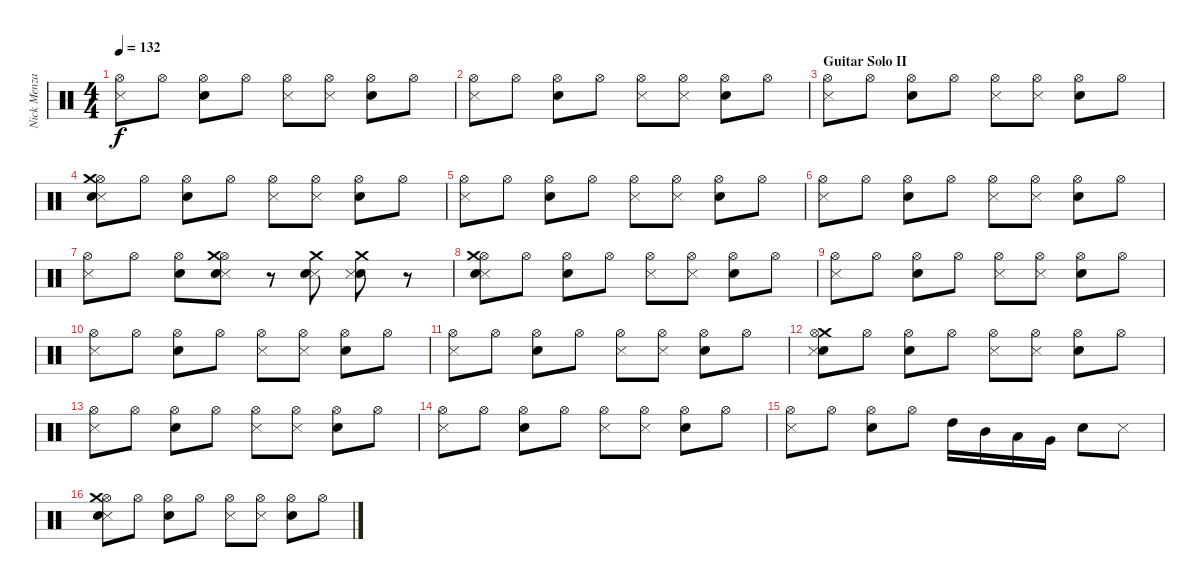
\track ("Nick Menza (Drums)" "Nick Menza") {instrument percussion}
\staff {score}
\articulation defaults
\ts (4 4)
\tempo 132
\clef neutral
\ks c
("Hi-Hat (open)" "Metronome (hit)").8{dy f} "Hi-Hat (open)".8 ("Hi-Hat (open)" "Electric Snare (hit)").8 "Hi-Hat (open)".8 ("Metronome (hit)" "Hi-Hat (open)").8 ("Metronome (hit)" "Hi-Hat (open)").8 ("Electric Snare (hit)" "Hi-Hat (open)").8 "Hi-Hat (open)".8 |
("Hi-Hat (open)" "Metronome (hit)").8 "Hi-Hat (open)".8 ("Electric Snare (hit)" "Hi-Hat (open)").8 "Hi-Hat (open)".8 ("Hi-Hat (open)" "Metronome (hit)").8 ("Hi-Hat (open)" "Metronome (hit)").8 ("Hi-Hat (open)" "Electric Snare (hit)").8 "Hi-Hat (open)".8 |
\section ("" "Guitar Solo II")
("Metronome (hit)" "Hi-Hat (open)").8 "Hi-Hat (open)".8 ("Electric Snare (hit)" "Hi-Hat (open)").8 "Hi-Hat (open)".8 ("Metronome (hit)" "Hi-Hat (open)").8 ("Metronome (hit)" "Hi-Hat (open)").8 ("Electric Snare (hit)" "Hi-Hat (open)").8 "Hi-Hat (open)".8 |
("Metronome (hit)" "Electric Snare (hit)" "Hi-Hat (open)" "Crash medium (hit)").8 "Hi-Hat (open)".8 ("Electric Snare (hit)" "Hi-Hat (open)").8 "Hi-Hat (open)".8 ("Hi-Hat (open)" "Metronome (hit)").8 ("Metronome (hit)" "Hi-Hat (open)").8 ("Hi-Hat (open)" "Electric Snare (hit)").8 "Hi-Hat (open)".8 |
("Hi-Hat (open)" "Metronome (hit)").8 "Hi-Hat (open)".8 ("Hi-Hat (open)" "Electric Snare (hit)").8 "Hi-Hat (open)".8 ("Metronome (hit)" "Hi-Hat (open)").8 ("Metronome (hit)" "Hi-Hat (open)").8 ("Electric Snare (hit)" "Hi-Hat (open)").8 "Hi-Hat (open)".8 |
("Hi-Hat (open)" "Metronome (hit)").8 "Hi-Hat (open)".8 ("Electric Snare (hit)" "Hi-Hat (open)").8 "Hi-Hat (open)".8 ("Metronome (hit)" "Hi-Hat (open)").8 ("Hi-Hat (open)" "Metronome (hit)").8 ("Hi-Hat (open)" "Electric Snare (hit)").8 "Hi-Hat (open)".8 |
("Hi-Hat (open)" "Metronome (hit)").8 "Hi-Hat (open)".8 ("Hi-Hat (open)" "Electric Snare (hit)").8 ("Hi-Hat (open)" "Metronome (hit)" "Electric Snare (hit)" "Crash medium (hit)").8 r.8 ("Metronome (hit)" "Crash medium (hit)" "Electric Snare (hit)").8 ("Electric Snare (hit)" "Metronome (hit)" "Crash medium (hit)").8 r.8 |
("Metronome (hit)" "Electric Snare (hit)" "Hi-Hat (open)" "Crash medium (hit)").8 "Hi-Hat (open)".8 ("Hi-Hat (open)" "Electric Snare (hit)").8 "Hi-Hat (open)".8 ("Hi-Hat (open)" "Metronome (hit)").8 ("Metronome (hit)" "Hi-Hat (open)").8 ("Electric Snare (hit)" "Hi-Hat (open)").8 "Hi-Hat (open)".8 |
("Hi-Hat (open)" "Metronome (hit)").8 "Hi-Hat (open)".8 ("Electric Snare (hit)" "Hi-Hat (open)").8 "Hi-Hat (open)".8 ("Metronome (hit)" "Hi-Hat (open)").8 ("Metronome (hit)" "Hi-Hat (open)").8 ("Electric Snare (hit)" "Hi-Hat (open)").8 "Hi-Hat (open)".8 |
("Hi-Hat (open)" "Metronome (hit)").8 "Hi-Hat (open)".8 ("Electric Snare (hit)" "Hi-Hat (open)").8 "Hi-Hat (open)".8 ("Hi-Hat (open)" "Metronome (hit)").8 ("Hi-Hat (open)" "Metronome (hit)").8 ("Hi-Hat (open)" "Electric Snare (hit)").8 "Hi-Hat (open)".8 |
("Metronome (hit)" "Hi-Hat (open)").8 "Hi-Hat (open)".8 ("Electric Snare (hit)" "Hi-Hat (open)").8 "Hi-Hat (open)".8 ("Metronome (hit)" "Hi-Hat (open)").8 ("Metronome (hit)" "Hi-Hat (open)").8 ("Electric Snare (hit)" "Hi-Hat (open)").8 "Hi-Hat (open)".8 |
("Crash medium (hit)" "Hi-Hat (open)" "Electric Snare (hit)" "Metronome (hit)").8 "Hi-Hat (open)".8 ("Electric Snare (hit)" "Hi-Hat (open)").8 "Hi-Hat (open)".8 ("Metronome (hit)" "Hi-Hat (open)").8 ("Metronome (hit)" "Hi-Hat (open)").8 ("Electric Snare (hit)" "Hi-Hat (open)").8 "Hi-Hat (open)".8 |
("Metronome (hit)" "Hi-Hat (open)").8 "Hi-Hat (open)".8 ("Electric Snare (hit)" "Hi-Hat (open)").8 "Hi-Hat (open)".8 ("Metronome (hit)" "Hi-Hat (open)").8 ("Metronome (hit)" "Hi-Hat (open)").8 ("Hi-Hat (open)" "Electric Snare (hit)").8 "Hi-Hat (open)".8 |
("Hi-Hat (open)" "Metronome (hit)").8 "Hi-Hat (open)".8 ("Hi-Hat (open)" "Electric Snare (hit)").8 "Hi-Hat (open)".8 ("Metronome (hit)" "Hi-Hat (open)").8 ("Hi-Hat (open)" "Metronome (hit)").8 ("Hi-Hat (open)" "Electric Snare (hit)").8 "Hi-Hat (open)".8 |
("Hi-Hat (open)" "Metronome (hit)").8 "Hi-Hat (open)".8 ("Hi-Hat (open)" "Electric Snare (hit)").8 "Hi-Hat (open)".8 "High Tom (hit)".16 "Mid Tom (hit)".16 "Low Tom (hit)".16 "Very Low Tom (hit)".16 "Electric Snare (hit)".8 "Metronome (hit)".8 |
("Metronome (hit)" "Electric Snare (hit)" "Hi-Hat (open)" "Crash medium (hit)").8 "Hi-Hat (open)".8 ("Electric Snare (hit)" "Hi-Hat (open)").8 "Hi-Hat (open)".8 ("Hi-Hat (open)" "Metronome (hit)").8 ("Hi-Hat (open)" "Metronome (hit)").8 ("Hi-Hat (open)" "Electric Snare (hit)").8 "Hi-Hat (open)".8
